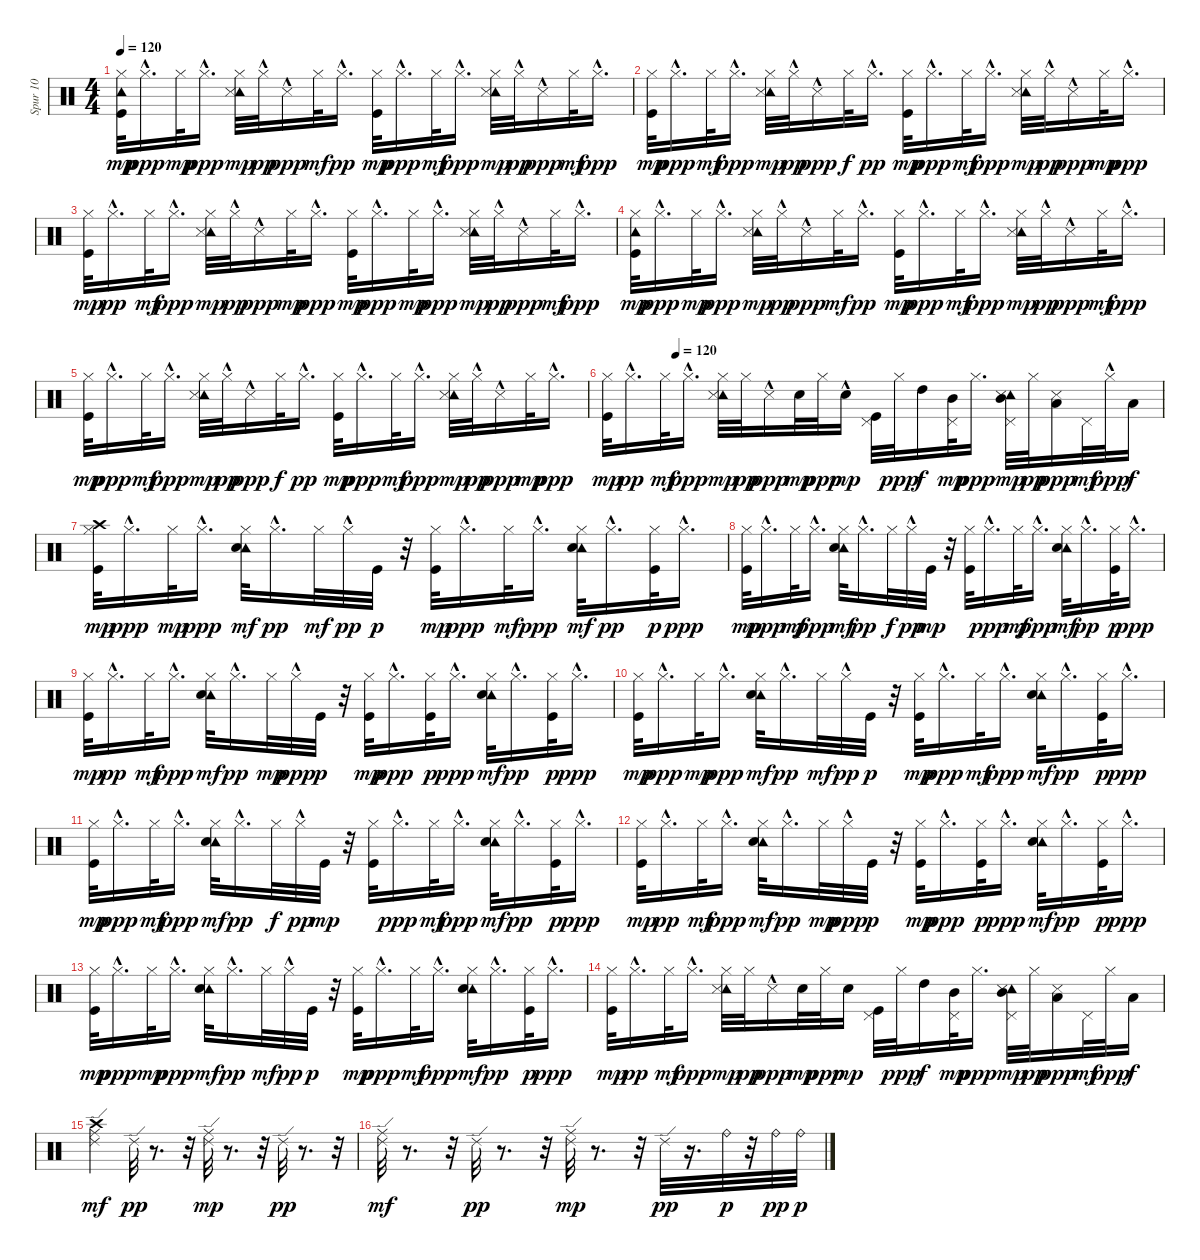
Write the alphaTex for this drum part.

\track ("Spur 10" "Spur 10") {instrument percussion}
\staff {score}
\articulation defaults
\ts (4 4)
\tempo 120
\clef neutral
\ks c
("Tambourine (hit)" "Hi-Hat (closed)" "Kick (hit)").32{dy mp} "Hi-Hat (closed)"{hac}.16{d dy ppp} "Hi-Hat (closed)".32{dy mp} "Hi-Hat (closed)"{hac}.16{d dy ppp} ("Tambourine (hit)" "Snare (side stick) 3" "Hi-Hat (closed)").32{dy mp} "Hi-Hat (closed)"{hac}.32{dy pp} "Snare (side stick) 3"{hac}.16{dy ppp} "Hi-Hat (closed)".32{dy mf} "Hi-Hat (closed)"{hac}.16{d dy pp} ("Hi-Hat (closed)" "Kick (hit)").32{dy mp} "Hi-Hat (closed)"{hac}.16{d dy ppp} "Hi-Hat (closed)".32{dy mf} "Hi-Hat (closed)"{hac}.16{d dy ppp} ("Tambourine (hit)" "Snare (side stick) 3" "Hi-Hat (closed)").32{dy mp} "Hi-Hat (closed)"{hac}.32{dy pp} "Snare (side stick) 3"{hac}.16{dy ppp} "Hi-Hat (closed)".32{dy mf} "Hi-Hat (closed)"{hac}.16{d dy ppp} |
("Hi-Hat (closed)" "Kick (hit)").32{dy mp} "Hi-Hat (closed)"{hac}.16{d dy ppp} "Hi-Hat (closed)".32{dy mf} "Hi-Hat (closed)"{hac}.16{d dy ppp} ("Tambourine (hit)" "Snare (side stick) 3" "Hi-Hat (closed)").32{dy mp} "Hi-Hat (closed)"{hac}.32{dy pp} "Snare (side stick) 3"{hac}.16{dy ppp} "Hi-Hat (closed)".32{dy f} "Hi-Hat (closed)"{hac}.16{d dy pp} ("Hi-Hat (closed)" "Kick (hit)").32{dy mp} "Hi-Hat (closed)"{hac}.16{d dy ppp} "Hi-Hat (closed)".32{dy mf} "Hi-Hat (closed)"{hac}.16{d dy ppp} ("Tambourine (hit)" "Snare (side stick) 3" "Hi-Hat (closed)").32{dy mp} "Hi-Hat (closed)"{hac}.32{dy pp} "Snare (side stick) 3"{hac}.16{dy ppp} "Hi-Hat (closed)".32{dy mp} "Hi-Hat (closed)"{hac}.16{d dy ppp} |
("Hi-Hat (closed)" "Kick (hit)").32{dy mp} "Hi-Hat (closed)"{hac}.16{d dy pp} "Hi-Hat (closed)".32{dy mf} "Hi-Hat (closed)"{hac}.16{d dy ppp} ("Tambourine (hit)" "Snare (side stick) 3" "Hi-Hat (closed)").32{dy mp} "Hi-Hat (closed)"{hac}.32{dy pp} "Snare (side stick) 3"{hac}.16{dy ppp} "Hi-Hat (closed)".32{dy mp} "Hi-Hat (closed)"{hac}.16{d dy ppp} ("Hi-Hat (closed)" "Kick (hit)").32{dy mp} "Hi-Hat (closed)"{hac}.16{d dy ppp} "Hi-Hat (closed)".32{dy mp} "Hi-Hat (closed)"{hac}.16{d dy ppp} ("Tambourine (hit)" "Snare (side stick) 3" "Hi-Hat (closed)").32{dy mp} "Hi-Hat (closed)"{hac}.32{dy pp} "Snare (side stick) 3"{hac}.16{dy ppp} "Hi-Hat (closed)".32{dy mf} "Hi-Hat (closed)"{hac}.16{d dy ppp} |
("Tambourine (hit)" "Hi-Hat (closed)" "Kick (hit)").32{dy mp} "Hi-Hat (closed)"{hac}.16{d dy ppp} "Hi-Hat (closed)".32{dy mp} "Hi-Hat (closed)"{hac}.16{d dy ppp} ("Tambourine (hit)" "Snare (side stick) 3" "Hi-Hat (closed)").32{dy mp} "Hi-Hat (closed)"{hac}.32{dy pp} "Snare (side stick) 3"{hac}.16{dy ppp} "Hi-Hat (closed)".32{dy mf} "Hi-Hat (closed)"{hac}.16{d dy pp} ("Hi-Hat (closed)" "Kick (hit)").32{dy mp} "Hi-Hat (closed)"{hac}.16{d dy ppp} "Hi-Hat (closed)".32{dy mf} "Hi-Hat (closed)"{hac}.16{d dy ppp} ("Tambourine (hit)" "Snare (side stick) 3" "Hi-Hat (closed)").32{dy mp} "Hi-Hat (closed)"{hac}.32{dy pp} "Snare (side stick) 3"{hac}.16{dy ppp} "Hi-Hat (closed)".32{dy mf} "Hi-Hat (closed)"{hac}.16{d dy ppp} |
("Hi-Hat (closed)" "Kick (hit)").32{dy mp} "Hi-Hat (closed)"{hac}.16{d dy ppp} "Hi-Hat (closed)".32{dy mf} "Hi-Hat (closed)"{hac}.16{d dy ppp} ("Tambourine (hit)" "Snare (side stick) 3" "Hi-Hat (closed)").32{dy mp} "Hi-Hat (closed)"{hac}.32{dy pp} "Snare (side stick) 3"{hac}.16{dy ppp} "Hi-Hat (closed)".32{dy f} "Hi-Hat (closed)"{hac}.16{d dy pp} ("Hi-Hat (closed)" "Kick (hit)").32{dy mp} "Hi-Hat (closed)"{hac}.16{d dy ppp} "Hi-Hat (closed)".32{dy mf} "Hi-Hat (closed)"{hac}.16{d dy ppp} ("Tambourine (hit)" "Snare (side stick) 3" "Hi-Hat (closed)").32{dy mp} "Hi-Hat (closed)"{hac}.32{dy pp} "Snare (side stick) 3"{hac}.16{dy ppp} "Hi-Hat (closed)".32{dy mp} "Hi-Hat (closed)"{hac}.16{d dy ppp} |
\tempo (120 0.125)
("Hi-Hat (closed)" "Kick (hit)").32{dy mp} "Hi-Hat (closed)"{hac}.16{d dy pp} "Hi-Hat (closed)".32{dy mf} "Hi-Hat (closed)"{hac}.16{d dy ppp} ("Tambourine (hit)" "Snare (side stick) 3" "Hi-Hat (closed)").32{dy mp} "Hi-Hat (closed)".32{dy pp} "Snare (side stick) 3"{hac}.16{dy ppp} "Snare (hit) 2".32{dy mp} "Hi-Hat (closed)".32{dy ppp} "Snare (hit) 2"{hac}.16{dy mp} ("Pedal Hi-Hat (hit)" "Kick (hit)").32 "Hi-Hat (closed)".32{dy ppp} "High Tom (hit)".16{dy f} ("Mid Tom (hit)" "Pedal Hi-Hat (hit)").32{dy mp} "Hi-Hat (closed)".16{d dy ppp} ("Tambourine (hit)" "Mid Tom (hit)" "Snare (side stick) 3" "Pedal Hi-Hat (hit)").32{dy mp} "Hi-Hat (closed)".32{dy pp} ("Low Tom (hit)" "Snare (side stick) 3").16{dy ppp} "Pedal Hi-Hat (hit)".32{dy mf} "Hi-Hat (closed)"{hac}.32{dy ppp} "Low Floor Tom (hit)".16{dy f} |
("Crash high (hit)" "Hi-Hat (closed)" "Kick (hit)").32{dy mp} "Hi-Hat (closed)"{hac}.16{d dy ppp} "Hi-Hat (closed)".32{dy mp} "Hi-Hat (closed)"{hac}.16{d dy ppp} ("Tambourine (hit)" "Snare (hit) 2" "Hi-Hat (closed)").32{dy mf} "Hi-Hat (closed)"{hac}.16{d dy pp} "Hi-Hat (closed)".32{dy mf} "Hi-Hat (closed)"{hac}.32{dy pp} "Kick (hit)".32{dy p} r.32 ("Hi-Hat (closed)" "Kick (hit)").32{dy mp} "Hi-Hat (closed)"{hac}.16{d dy ppp} "Hi-Hat (closed)".32{dy mf} "Hi-Hat (closed)"{hac}.16{d dy ppp} ("Tambourine (hit)" "Snare (hit) 2" "Hi-Hat (closed)").32{dy mf} "Hi-Hat (closed)"{hac}.16{d dy pp} ("Hi-Hat (closed)" "Kick (hit)").32{dy p} "Hi-Hat (closed)"{hac}.16{d dy ppp} |
("Hi-Hat (closed)" "Kick (hit)").32{dy mp} "Hi-Hat (closed)"{hac}.16{d dy ppp} "Hi-Hat (closed)".32{dy mf} "Hi-Hat (closed)"{hac}.16{d dy ppp} ("Tambourine (hit)" "Snare (hit) 2" "Hi-Hat (closed)").32{dy mf} "Hi-Hat (closed)"{hac}.16{d dy pp} "Hi-Hat (closed)".32{dy f} "Hi-Hat (closed)"{hac}.32{dy pp} "Kick (hit)".32{dy mp} r.32 ("Hi-Hat (closed)" "Kick (hit)").32 "Hi-Hat (closed)"{hac}.16{d dy ppp} "Hi-Hat (closed)".32{dy mf} "Hi-Hat (closed)"{hac}.16{d dy ppp} ("Tambourine (hit)" "Snare (hit) 2" "Hi-Hat (closed)").32{dy mf} "Hi-Hat (closed)"{hac}.16{d dy pp} ("Hi-Hat (closed)" "Kick (hit)").32{dy p} "Hi-Hat (closed)"{hac}.16{d dy ppp} |
("Hi-Hat (closed)" "Kick (hit)").32{dy mp} "Hi-Hat (closed)"{hac}.16{d dy pp} "Hi-Hat (closed)".32{dy mf} "Hi-Hat (closed)"{hac}.16{d dy ppp} ("Tambourine (hit)" "Snare (hit) 2" "Hi-Hat (closed)").32{dy mf} "Hi-Hat (closed)"{hac}.16{d dy pp} "Hi-Hat (closed)".32{dy mp} "Hi-Hat (closed)"{hac}.32{dy ppp} "Kick (hit)".32{dy p} r.32 ("Hi-Hat (closed)" "Kick (hit)").32{dy mp} "Hi-Hat (closed)"{hac}.16{d dy ppp} ("Hi-Hat (closed)" "Kick (hit)").32{dy p} "Hi-Hat (closed)"{hac}.16{d dy ppp} ("Tambourine (hit)" "Snare (hit) 2" "Hi-Hat (closed)").32{dy mf} "Hi-Hat (closed)"{hac}.16{d dy pp} ("Hi-Hat (closed)" "Kick (hit)").32{dy p} "Hi-Hat (closed)"{hac}.16{d dy ppp} |
("Hi-Hat (closed)" "Kick (hit)").32{dy mp} "Hi-Hat (closed)"{hac}.16{d dy ppp} "Hi-Hat (closed)".32{dy mp} "Hi-Hat (closed)"{hac}.16{d dy ppp} ("Tambourine (hit)" "Snare (hit) 2" "Hi-Hat (closed)").32{dy mf} "Hi-Hat (closed)"{hac}.16{d dy pp} "Hi-Hat (closed)".32{dy mf} "Hi-Hat (closed)"{hac}.32{dy pp} "Kick (hit)".32{dy p} r.32 ("Hi-Hat (closed)" "Kick (hit)").32{dy mp} "Hi-Hat (closed)"{hac}.16{d dy ppp} "Hi-Hat (closed)".32{dy mf} "Hi-Hat (closed)"{hac}.16{d dy ppp} ("Tambourine (hit)" "Snare (hit) 2" "Hi-Hat (closed)").32{dy mf} "Hi-Hat (closed)"{hac}.16{d dy pp} ("Hi-Hat (closed)" "Kick (hit)").32{dy p} "Hi-Hat (closed)"{hac}.16{d dy ppp} |
("Hi-Hat (closed)" "Kick (hit)").32{dy mp} "Hi-Hat (closed)"{hac}.16{d dy ppp} "Hi-Hat (closed)".32{dy mf} "Hi-Hat (closed)"{hac}.16{d dy ppp} ("Tambourine (hit)" "Snare (hit) 2" "Hi-Hat (closed)").32{dy mf} "Hi-Hat (closed)"{hac}.16{d dy pp} "Hi-Hat (closed)".32{dy f} "Hi-Hat (closed)"{hac}.32{dy pp} "Kick (hit)".32{dy mp} r.32 ("Hi-Hat (closed)" "Kick (hit)").32 "Hi-Hat (closed)"{hac}.16{d dy ppp} "Hi-Hat (closed)".32{dy mf} "Hi-Hat (closed)"{hac}.16{d dy ppp} ("Tambourine (hit)" "Snare (hit) 2" "Hi-Hat (closed)").32{dy mf} "Hi-Hat (closed)"{hac}.16{d dy pp} ("Hi-Hat (closed)" "Kick (hit)").32{dy p} "Hi-Hat (closed)"{hac}.16{d dy ppp} |
("Hi-Hat (closed)" "Kick (hit)").32{dy mp} "Hi-Hat (closed)"{hac}.16{d dy pp} "Hi-Hat (closed)".32{dy mf} "Hi-Hat (closed)"{hac}.16{d dy ppp} ("Tambourine (hit)" "Snare (hit) 2" "Hi-Hat (closed)").32{dy mf} "Hi-Hat (closed)"{hac}.16{d dy pp} "Hi-Hat (closed)".32{dy mp} "Hi-Hat (closed)"{hac}.32{dy ppp} "Kick (hit)".32{dy p} r.32 ("Hi-Hat (closed)" "Kick (hit)").32{dy mp} "Hi-Hat (closed)"{hac}.16{d dy ppp} ("Hi-Hat (closed)" "Kick (hit)").32{dy p} "Hi-Hat (closed)"{hac}.16{d dy ppp} ("Tambourine (hit)" "Snare (hit) 2" "Hi-Hat (closed)").32{dy mf} "Hi-Hat (closed)"{hac}.16{d dy pp} ("Hi-Hat (closed)" "Kick (hit)").32{dy p} "Hi-Hat (closed)"{hac}.16{d dy ppp} |
("Hi-Hat (closed)" "Kick (hit)").32{dy mp} "Hi-Hat (closed)"{hac}.16{d dy ppp} "Hi-Hat (closed)".32{dy mp} "Hi-Hat (closed)"{hac}.16{d dy ppp} ("Tambourine (hit)" "Snare (hit) 2" "Hi-Hat (closed)").32{dy mf} "Hi-Hat (closed)"{hac}.16{d dy pp} "Hi-Hat (closed)".32{dy mf} "Hi-Hat (closed)"{hac}.32{dy pp} "Kick (hit)".32{dy p} r.32 ("Hi-Hat (closed)" "Kick (hit)").32{dy mp} "Hi-Hat (closed)"{hac}.16{d dy ppp} "Hi-Hat (closed)".32{dy mf} "Hi-Hat (closed)"{hac}.16{d dy ppp} ("Tambourine (hit)" "Snare (hit) 2" "Hi-Hat (closed)").32{dy mf} "Hi-Hat (closed)"{hac}.16{d dy pp} ("Hi-Hat (closed)" "Kick (hit)").32{dy p} "Hi-Hat (closed)"{hac}.16{d dy ppp} |
("Hi-Hat (closed)" "Kick (hit)").32{dy mp} "Hi-Hat (closed)"{hac}.16{d dy pp} "Hi-Hat (closed)".32{dy mf} "Hi-Hat (closed)"{hac}.16{d dy ppp} ("Tambourine (hit)" "Snare (side stick) 3" "Hi-Hat (closed)").32{dy mp} "Hi-Hat (closed)".32{dy pp} "Snare (side stick) 3"{hac}.16{dy ppp} "Snare (hit) 2".32{dy mp} "Hi-Hat (closed)".32{dy ppp} "Snare (hit) 2".16{dy mp} ("Pedal Hi-Hat (hit)" "Kick (hit)").32 "Hi-Hat (closed)".32{dy ppp} "High Tom (hit)".16{dy f} ("Mid Tom (hit)" "Pedal Hi-Hat (hit)").32{dy mp} "Hi-Hat (closed)".16{d dy ppp} ("Tambourine (hit)" "Mid Tom (hit)" "Snare (side stick) 3" "Pedal Hi-Hat (hit)").32{dy mp} "Hi-Hat (closed)".32{dy pp} ("Low Tom (hit)" "Snare (side stick) 3").16{dy ppp} "Pedal Hi-Hat (hit)".32{dy mf} "Hi-Hat (closed)".32{dy ppp} "Low Floor Tom (hit)".16{dy f} |
("Crash high (hit)" "Ride (middle)" "Ride (edge) 2").4{dy mf} "Ride (edge) 2".32{dy pp} r.8{d} r.32 ("Ride (middle)" "Ride (edge) 2").32{dy mp} r.8{d} r.32 "Ride (edge) 2".32{dy pp} r.8{d} r.32 |
("Ride (middle)" "Ride (edge) 2").32{dy mf} r.8{d} r.32 "Ride (edge) 2".32{dy pp} r.8{d} r.32 ("Ride (middle)" "Ride (edge) 2").32{dy mp} r.8{d} r.32 "Ride (edge) 2".32{dy pp} r.16{d} "Ride (bell)".32{dy p} r.32 "Ride (bell)".32{dy pp} "Ride (bell)".32{dy p}
